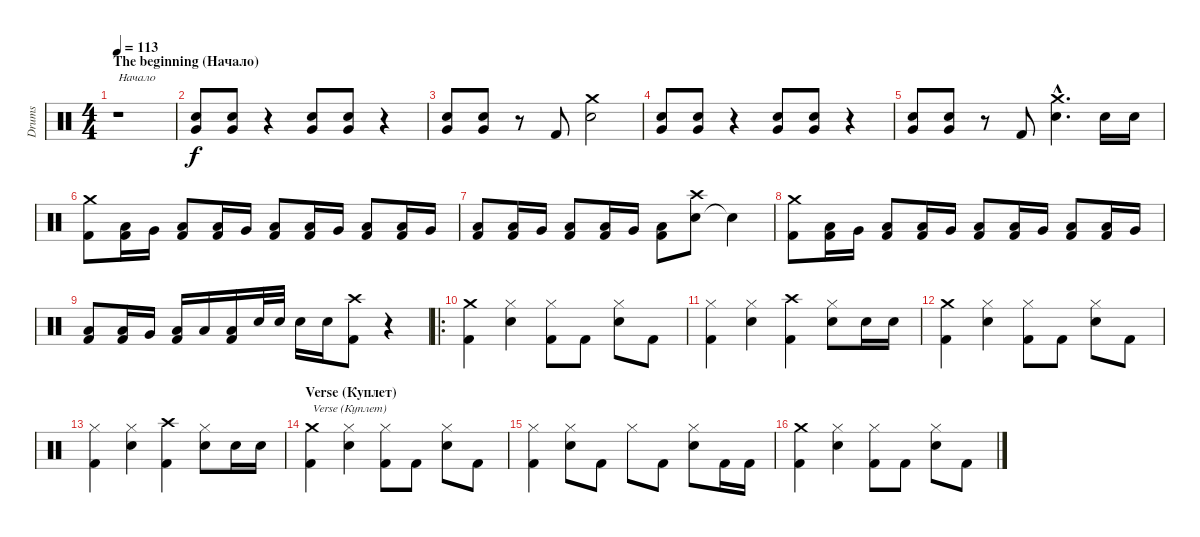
\track ("Drums" "Drums") {instrument percussion}
\staff {score}
\articulation defaults
\ts (4 4)
\section ("" "The beginning (Начало)")
\tempo 113
\clef neutral
\ks c
r.1{txt "Начало" dy f} |
("Snare (hit) 2" "Very Low Tom (hit)").8 ("Snare (hit) 2" "Very Low Tom (hit)").8 r.4 ("Snare (hit) 2" "Very Low Tom (hit)").8 ("Snare (hit) 2" "Very Low Tom (hit)").8 r.4 |
("Snare (hit) 2" "Very Low Tom (hit)").8 ("Snare (hit) 2" "Very Low Tom (hit)").8 r.8 "Kick (hit) 2".8 ("Snare (hit) 2" "Crash medium (hit)").2 |
("Snare (hit) 2" "Very Low Tom (hit)").8 ("Snare (hit) 2" "Very Low Tom (hit)").8 r.4 ("Snare (hit) 2" "Very Low Tom (hit)").8 ("Snare (hit) 2" "Very Low Tom (hit)").8 r.4 |
("Snare (hit) 2" "Very Low Tom (hit)").8 ("Snare (hit) 2" "Very Low Tom (hit)").8 r.8 "Kick (hit) 2".8 ("Snare (hit) 2"{hac} "Crash medium (hit)"{hac}).4{d} "Snare (hit) 2".16 "Snare (hit) 2".16 |
("Kick (hit) 2" "Crash medium (hit)").8 ("Kick (hit) 2" "Low Tom (hit)").16 "Very Low Tom (hit)".16 ("Kick (hit) 2" "Low Floor Tom (hit)").8 ("Kick (hit) 2" "Low Tom (hit)").16 "Very Low Tom (hit)".16 ("Kick (hit) 2" "Low Floor Tom (hit)").8 ("Kick (hit) 2" "Low Tom (hit)").16 "Very Low Tom (hit)".16 ("Kick (hit) 2" "Low Floor Tom (hit)").8 ("Kick (hit) 2" "Low Tom (hit)").16 "Very Low Tom (hit)".16 |
("Kick (hit) 2" "Low Floor Tom (hit)").8 ("Kick (hit) 2" "Low Tom (hit)").16 "Very Low Tom (hit)".16 ("Kick (hit) 2" "Low Floor Tom (hit)").8 ("Kick (hit) 2" "Low Tom (hit)").16 "Very Low Tom (hit)".16 ("Kick (hit) 2" "Low Floor Tom (hit)").8 ("Snare (hit) 2" "Crash high (hit)").8 "Snare (hit)"{t}.4 |
("Kick (hit) 2" "Crash medium (hit)").8 ("Kick (hit) 2" "Low Tom (hit)").16 "Very Low Tom (hit)".16 ("Kick (hit) 2" "Low Floor Tom (hit)").8 ("Kick (hit) 2" "Low Tom (hit)").16 "Very Low Tom (hit)".16 ("Kick (hit) 2" "Low Floor Tom (hit)").8 ("Kick (hit) 2" "Low Tom (hit)").16 "Very Low Tom (hit)".16 ("Kick (hit) 2" "Low Floor Tom (hit)").8 ("Kick (hit) 2" "Low Tom (hit)").16 "Very Low Tom (hit)".16 |
("Kick (hit) 2" "Low Floor Tom (hit)").8 ("Kick (hit) 2" "Low Tom (hit)").16 "Very Low Tom (hit)".16 ("Kick (hit) 2" "Low Floor Tom (hit)").16 "Low Floor Tom (hit)".16 ("Kick (hit) 2" "Low Floor Tom (hit)").16 "Snare (hit) 2".32 "Snare (hit) 2".32 "Snare (hit) 2".16 "Snare (hit) 2".16 ("Kick (hit) 2" "Crash high (hit)").8 r.4 |
\ro
("Kick (hit) 2" "Crash medium (hit)").4 ("Snare (hit) 2" "Hi-Hat (closed)").4 ("Kick (hit) 2" "Hi-Hat (closed)").8 "Kick (hit) 2".8 ("Snare (hit) 2" "Hi-Hat (closed)").8 "Kick (hit) 2".8 |
("Kick (hit) 2" "Hi-Hat (closed)").4 ("Snare (hit) 2" "Hi-Hat (closed)").4 ("Kick (hit) 2" "Crash high (hit)").4 ("Snare (hit) 2" "Hi-Hat (closed)").8 "Snare (hit) 2".16 "Snare (hit) 2".16 |
("Kick (hit) 2" "Crash medium (hit)").4 ("Snare (hit) 2" "Hi-Hat (closed)").4 ("Kick (hit) 2" "Hi-Hat (closed)").8 "Kick (hit) 2".8 ("Snare (hit) 2" "Hi-Hat (closed)").8 "Kick (hit) 2".8 |
("Kick (hit) 2" "Hi-Hat (closed)").4 ("Snare (hit) 2" "Hi-Hat (closed)").4 ("Kick (hit) 2" "Crash high (hit)").4 ("Snare (hit) 2" "Hi-Hat (closed)").8 "Snare (hit) 2".16 "Snare (hit) 2".16 |
\section ("" "Verse (Куплет)")
("Kick (hit) 2" "Crash medium (hit)").4{txt "Verse (Куплет)"} ("Snare (hit) 2" "Hi-Hat (closed)").4 ("Kick (hit) 2" "Hi-Hat (closed)").8 "Kick (hit) 2".8 ("Snare (hit) 2" "Hi-Hat (closed)").8 "Kick (hit) 2".8 |
("Kick (hit) 2" "Hi-Hat (closed)").4 ("Snare (hit) 2" "Hi-Hat (closed)").8 "Kick (hit) 2".8 "Hi-Hat (closed)".8 "Kick (hit) 2".8 ("Snare (hit) 2" "Hi-Hat (closed)").8 "Kick (hit) 2".16 "Kick (hit) 2".16 |
("Kick (hit) 2" "Crash medium (hit)").4 ("Snare (hit) 2" "Hi-Hat (closed)").4 ("Kick (hit) 2" "Hi-Hat (closed)").8 "Kick (hit) 2".8 ("Snare (hit) 2" "Hi-Hat (closed)").8 "Kick (hit) 2".8
